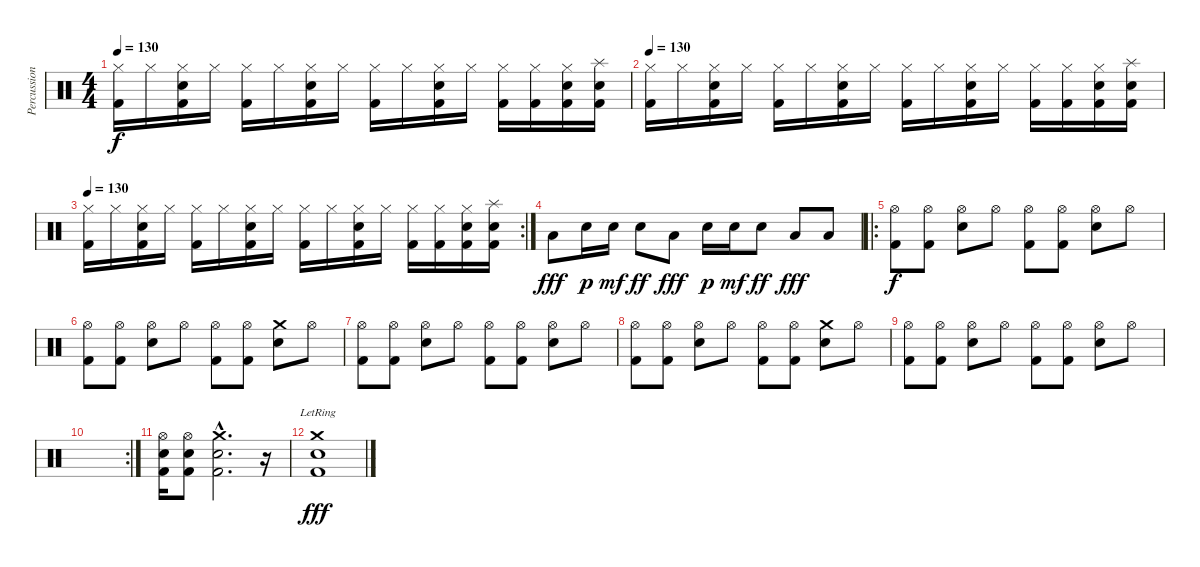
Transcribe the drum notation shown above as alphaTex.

\track ("Percussion" "Percussion") {instrument percussion}
\staff {score}
\articulation defaults
\ts (4 4)
\tempo 130
\clef neutral
\ks c
("Hi-Hat (closed)" "Kick (hit) 2").16{dy f} "Hi-Hat (closed)".16 ("Hi-Hat (closed)" "Snare (hit) 2" "Kick (hit) 2").16 "Hi-Hat (closed)".16 ("Hi-Hat (closed)" "Kick (hit) 2").16 "Hi-Hat (closed)".16 ("Hi-Hat (closed)" "Snare (hit) 2" "Kick (hit) 2").16 "Hi-Hat (closed)".16 ("Hi-Hat (closed)" "Kick (hit) 2").16 "Hi-Hat (closed)".16 ("Hi-Hat (closed)" "Snare (hit) 2" "Kick (hit) 2").16 "Hi-Hat (closed)".16 ("Hi-Hat (closed)" "Kick (hit) 2").16 ("Hi-Hat (closed)" "Kick (hit) 2").16 ("Hi-Hat (closed)" "Snare (hit) 2" "Kick (hit) 2").16 ("Splash (hit)" "Snare (hit) 2" "Kick (hit) 2").16 |
\tempo 130
("Hi-Hat (closed)" "Kick (hit) 2").16 "Hi-Hat (closed)".16 ("Hi-Hat (closed)" "Snare (hit) 2" "Kick (hit) 2").16 "Hi-Hat (closed)".16 ("Hi-Hat (closed)" "Kick (hit) 2").16 "Hi-Hat (closed)".16 ("Hi-Hat (closed)" "Snare (hit) 2" "Kick (hit) 2").16 "Hi-Hat (closed)".16 ("Hi-Hat (closed)" "Kick (hit) 2").16 "Hi-Hat (closed)".16 ("Hi-Hat (closed)" "Snare (hit) 2" "Kick (hit) 2").16 "Hi-Hat (closed)".16 ("Hi-Hat (closed)" "Kick (hit) 2").16 ("Hi-Hat (closed)" "Kick (hit) 2").16 ("Hi-Hat (closed)" "Snare (hit) 2" "Kick (hit) 2").16 ("Splash (hit)" "Snare (hit) 2" "Kick (hit) 2").16 |
\rc 2
\tempo 130
("Hi-Hat (closed)" "Kick (hit) 2").16 "Hi-Hat (closed)".16 ("Hi-Hat (closed)" "Snare (hit) 2" "Kick (hit) 2").16 "Hi-Hat (closed)".16 ("Hi-Hat (closed)" "Kick (hit) 2").16 "Hi-Hat (closed)".16 ("Hi-Hat (closed)" "Snare (hit) 2" "Kick (hit) 2").16 "Hi-Hat (closed)".16 ("Hi-Hat (closed)" "Kick (hit) 2").16 "Hi-Hat (closed)".16 ("Hi-Hat (closed)" "Snare (hit) 2" "Kick (hit) 2").16 "Hi-Hat (closed)".16 ("Hi-Hat (closed)" "Kick (hit) 2").16 ("Hi-Hat (closed)" "Kick (hit) 2").16 ("Hi-Hat (closed)" "Snare (hit) 2" "Kick (hit) 2").16 ("Splash (hit)" "Snare (hit) 2" "Kick (hit) 2").16 |
"Low Tom (hit)".8{dy fff} "Electric Snare (hit)".16{dy p} "Electric Snare (hit)".16{dy mf} "Electric Snare (hit)".8{dy ff} "Low Tom (hit)".8{dy fff} "Electric Snare (hit)".16{dy p} "Electric Snare (hit)".16{dy mf} "Electric Snare (hit)".8{dy ff} "Low Tom (hit)".8{dy fff} "Low Tom (hit)".8 |
\ro
("Hi-Hat (open)" "Kick (hit) 2").8{dy f} ("Hi-Hat (open)" "Kick (hit) 2").8 ("Hi-Hat (open)" "Snare (hit) 2").8 "Hi-Hat (open)".8 ("Hi-Hat (open)" "Kick (hit) 2").8 ("Hi-Hat (open)" "Kick (hit) 2").8 ("Hi-Hat (open)" "Snare (hit) 2").8 "Hi-Hat (open)".8 |
("Hi-Hat (open)" "Kick (hit) 2").8 ("Hi-Hat (open)" "Kick (hit) 2").8 ("Hi-Hat (open)" "Snare (hit) 2").8 "Hi-Hat (open)".8 ("Hi-Hat (open)" "Kick (hit) 2").8 ("Hi-Hat (open)" "Kick (hit) 2").8 ("Crash medium (hit)" "Snare (hit) 2").8 "Hi-Hat (open)".8 |
("Hi-Hat (open)" "Kick (hit) 2").8 ("Hi-Hat (open)" "Kick (hit) 2").8 ("Hi-Hat (open)" "Snare (hit) 2").8 "Hi-Hat (open)".8 ("Hi-Hat (open)" "Kick (hit) 2").8 ("Hi-Hat (open)" "Kick (hit) 2").8 ("Hi-Hat (open)" "Snare (hit) 2").8 "Hi-Hat (open)".8 |
("Hi-Hat (open)" "Kick (hit) 2").8 ("Hi-Hat (open)" "Kick (hit) 2").8 ("Hi-Hat (open)" "Snare (hit) 2").8 "Hi-Hat (open)".8 ("Hi-Hat (open)" "Kick (hit) 2").8 ("Hi-Hat (open)" "Kick (hit) 2").8 ("Crash medium (hit)" "Snare (hit) 2").8 "Hi-Hat (open)".8 |
("Hi-Hat (open)" "Kick (hit) 2").8 ("Hi-Hat (open)" "Kick (hit) 2").8 ("Hi-Hat (open)" "Snare (hit) 2").8 "Hi-Hat (open)".8 ("Hi-Hat (open)" "Kick (hit) 2").8 ("Hi-Hat (open)" "Kick (hit) 2").8 ("Hi-Hat (open)" "Snare (hit) 2").8 "Hi-Hat (open)".8 |
\rc 2
|
("Hi-Hat (open)" "Electric Snare (hit)" "Kick (hit) 2").16 ("Hi-Hat (open)" "Electric Snare (hit)" "Kick (hit) 2").8 ("Electric Snare (hit)"{hac} "Crash medium (hit)"{hac} "Kick (hit) 2"{hac}).2{d} r.16 |
("Crash medium (hit)"{lr} "Kick (hit) 2" "Electric Snare (hit)").1{dy fff}
